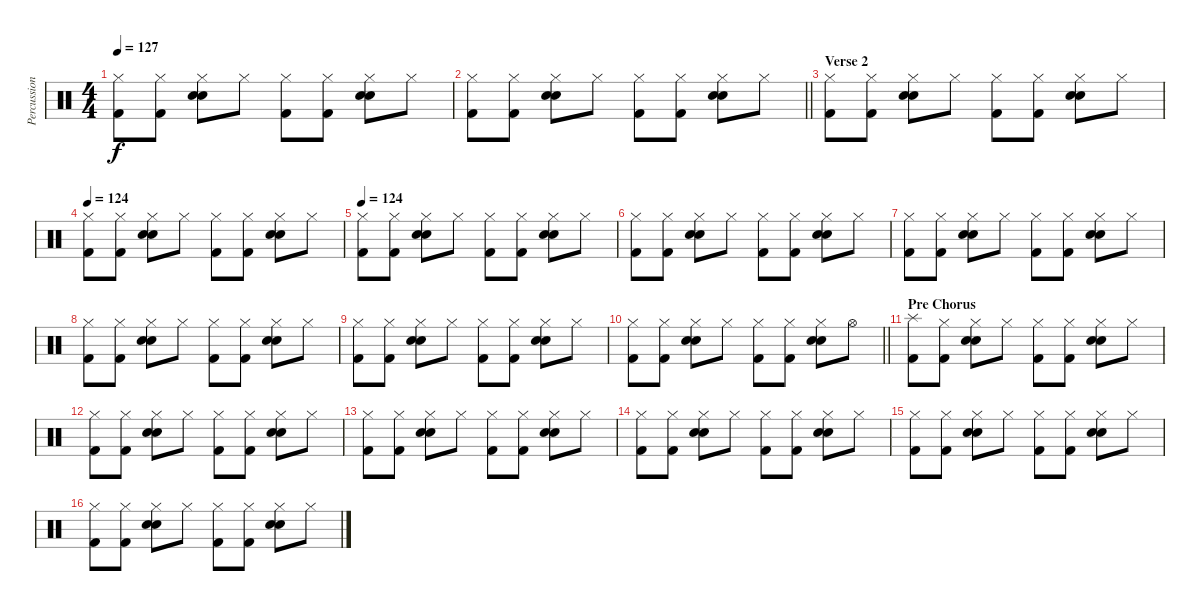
\track ("Percussion" "Percussion") {instrument percussion}
\staff {score}
\articulation defaults
\ts (4 4)
\tempo 127
\clef neutral
\ks c
("Hi-Hat (closed)" "Kick (hit) 2").8{dy f} ("Hi-Hat (closed)" "Kick (hit) 2").8 ("Hi-Hat (closed)" "Snare (hit) 2" "Electric Snare (hit)").8 "Hi-Hat (closed)".8 ("Hi-Hat (closed)" "Kick (hit) 2").8 ("Hi-Hat (closed)" "Kick (hit) 2").8 ("Hi-Hat (closed)" "Snare (hit) 2" "Electric Snare (hit)").8 "Hi-Hat (closed)".8 |
\barLineRight lightlight
("Hi-Hat (closed)" "Kick (hit) 2").8 ("Hi-Hat (closed)" "Kick (hit) 2").8 ("Hi-Hat (closed)" "Snare (hit) 2" "Electric Snare (hit)").8 "Hi-Hat (closed)".8 ("Hi-Hat (closed)" "Kick (hit) 2").8 ("Hi-Hat (closed)" "Kick (hit) 2").8 ("Hi-Hat (closed)" "Snare (hit) 2" "Electric Snare (hit)").8 "Hi-Hat (closed)".8 |
\section ("" "Verse 2")
("Hi-Hat (closed)" "Kick (hit) 2").8 ("Hi-Hat (closed)" "Kick (hit) 2").8 ("Hi-Hat (closed)" "Snare (hit) 2" "Electric Snare (hit)").8 "Hi-Hat (closed)".8 ("Hi-Hat (closed)" "Kick (hit) 2").8 ("Hi-Hat (closed)" "Kick (hit) 2").8 ("Hi-Hat (closed)" "Snare (hit) 2" "Electric Snare (hit)").8 "Hi-Hat (closed)".8 |
\tempo 126
\tempo 124
("Hi-Hat (closed)" "Kick (hit) 2").8 ("Hi-Hat (closed)" "Kick (hit) 2").8 ("Hi-Hat (closed)" "Snare (hit) 2" "Electric Snare (hit)").8 "Hi-Hat (closed)".8 ("Hi-Hat (closed)" "Kick (hit) 2").8 ("Hi-Hat (closed)" "Kick (hit) 2").8 ("Hi-Hat (closed)" "Snare (hit) 2" "Electric Snare (hit)").8 "Hi-Hat (closed)".8 |
\tempo 124
("Hi-Hat (closed)" "Kick (hit) 2").8 ("Hi-Hat (closed)" "Kick (hit) 2").8 ("Hi-Hat (closed)" "Snare (hit) 2" "Electric Snare (hit)").8 "Hi-Hat (closed)".8 ("Hi-Hat (closed)" "Kick (hit) 2").8 ("Hi-Hat (closed)" "Kick (hit) 2").8 ("Hi-Hat (closed)" "Snare (hit) 2" "Electric Snare (hit)").8 "Hi-Hat (closed)".8 |
("Hi-Hat (closed)" "Kick (hit) 2").8 ("Hi-Hat (closed)" "Kick (hit) 2").8 ("Hi-Hat (closed)" "Snare (hit) 2" "Electric Snare (hit)").8 "Hi-Hat (closed)".8 ("Hi-Hat (closed)" "Kick (hit) 2").8 ("Hi-Hat (closed)" "Kick (hit) 2").8 ("Hi-Hat (closed)" "Snare (hit) 2" "Electric Snare (hit)").8 "Hi-Hat (closed)".8 |
("Hi-Hat (closed)" "Kick (hit) 2").8 ("Hi-Hat (closed)" "Kick (hit) 2").8 ("Hi-Hat (closed)" "Snare (hit) 2" "Electric Snare (hit)").8 "Hi-Hat (closed)".8 ("Hi-Hat (closed)" "Kick (hit) 2").8 ("Hi-Hat (closed)" "Kick (hit) 2").8 ("Hi-Hat (closed)" "Snare (hit) 2" "Electric Snare (hit)").8 "Hi-Hat (closed)".8 |
("Hi-Hat (closed)" "Kick (hit) 2").8 ("Hi-Hat (closed)" "Kick (hit) 2").8 ("Hi-Hat (closed)" "Snare (hit) 2" "Electric Snare (hit)").8 "Hi-Hat (closed)".8 ("Hi-Hat (closed)" "Kick (hit) 2").8 ("Hi-Hat (closed)" "Kick (hit) 2").8 ("Hi-Hat (closed)" "Snare (hit) 2" "Electric Snare (hit)").8 "Hi-Hat (closed)".8 |
("Hi-Hat (closed)" "Kick (hit) 2").8 ("Hi-Hat (closed)" "Kick (hit) 2").8 ("Hi-Hat (closed)" "Snare (hit) 2" "Electric Snare (hit)").8 "Hi-Hat (closed)".8 ("Hi-Hat (closed)" "Kick (hit) 2").8 ("Hi-Hat (closed)" "Kick (hit) 2").8 ("Hi-Hat (closed)" "Snare (hit) 2" "Electric Snare (hit)").8 "Hi-Hat (closed)".8 |
\barLineRight lightlight
("Hi-Hat (closed)" "Kick (hit) 2").8 ("Hi-Hat (closed)" "Kick (hit) 2").8 ("Hi-Hat (closed)" "Snare (hit) 2" "Electric Snare (hit)").8 "Hi-Hat (closed)".8 ("Hi-Hat (closed)" "Kick (hit) 2").8 ("Hi-Hat (closed)" "Kick (hit) 2").8 ("Hi-Hat (closed)" "Snare (hit) 2" "Electric Snare (hit)").8 "Hi-Hat (open)".8 |
\section ("" "Pre Chorus")
("Splash (hit)" "Kick (hit) 2").8 ("Hi-Hat (closed)" "Kick (hit) 2").8 ("Hi-Hat (closed)" "Snare (hit) 2" "Electric Snare (hit)").8 "Hi-Hat (closed)".8 ("Hi-Hat (closed)" "Kick (hit) 2").8 ("Hi-Hat (closed)" "Kick (hit) 2").8 ("Hi-Hat (closed)" "Snare (hit) 2" "Electric Snare (hit)").8 "Hi-Hat (closed)".8 |
("Hi-Hat (closed)" "Kick (hit) 2").8 ("Hi-Hat (closed)" "Kick (hit) 2").8 ("Hi-Hat (closed)" "Snare (hit) 2" "Electric Snare (hit)").8 "Hi-Hat (closed)".8 ("Hi-Hat (closed)" "Kick (hit) 2").8 ("Hi-Hat (closed)" "Kick (hit) 2").8 ("Hi-Hat (closed)" "Snare (hit) 2" "Electric Snare (hit)").8 "Hi-Hat (closed)".8 |
("Hi-Hat (closed)" "Kick (hit) 2").8 ("Hi-Hat (closed)" "Kick (hit) 2").8 ("Hi-Hat (closed)" "Snare (hit) 2" "Electric Snare (hit)").8 "Hi-Hat (closed)".8 ("Hi-Hat (closed)" "Kick (hit) 2").8 ("Hi-Hat (closed)" "Kick (hit) 2").8 ("Hi-Hat (closed)" "Snare (hit) 2" "Electric Snare (hit)").8 "Hi-Hat (closed)".8 |
("Hi-Hat (closed)" "Kick (hit) 2").8 ("Hi-Hat (closed)" "Kick (hit) 2").8 ("Hi-Hat (closed)" "Snare (hit) 2" "Electric Snare (hit)").8 "Hi-Hat (closed)".8 ("Hi-Hat (closed)" "Kick (hit) 2").8 ("Hi-Hat (closed)" "Kick (hit) 2").8 ("Hi-Hat (closed)" "Snare (hit) 2" "Electric Snare (hit)").8 "Hi-Hat (closed)".8 |
("Hi-Hat (closed)" "Kick (hit) 2").8 ("Hi-Hat (closed)" "Kick (hit) 2").8 ("Hi-Hat (closed)" "Snare (hit) 2" "Electric Snare (hit)").8 "Hi-Hat (closed)".8 ("Hi-Hat (closed)" "Kick (hit) 2").8 ("Hi-Hat (closed)" "Kick (hit) 2").8 ("Hi-Hat (closed)" "Snare (hit) 2" "Electric Snare (hit)").8 "Hi-Hat (closed)".8 |
("Hi-Hat (closed)" "Kick (hit) 2").8 ("Hi-Hat (closed)" "Kick (hit) 2").8 ("Hi-Hat (closed)" "Snare (hit) 2" "Electric Snare (hit)").8 "Hi-Hat (closed)".8 ("Hi-Hat (closed)" "Kick (hit) 2").8 ("Hi-Hat (closed)" "Kick (hit) 2").8 ("Hi-Hat (closed)" "Snare (hit) 2" "Electric Snare (hit)").8 "Hi-Hat (closed)".8
